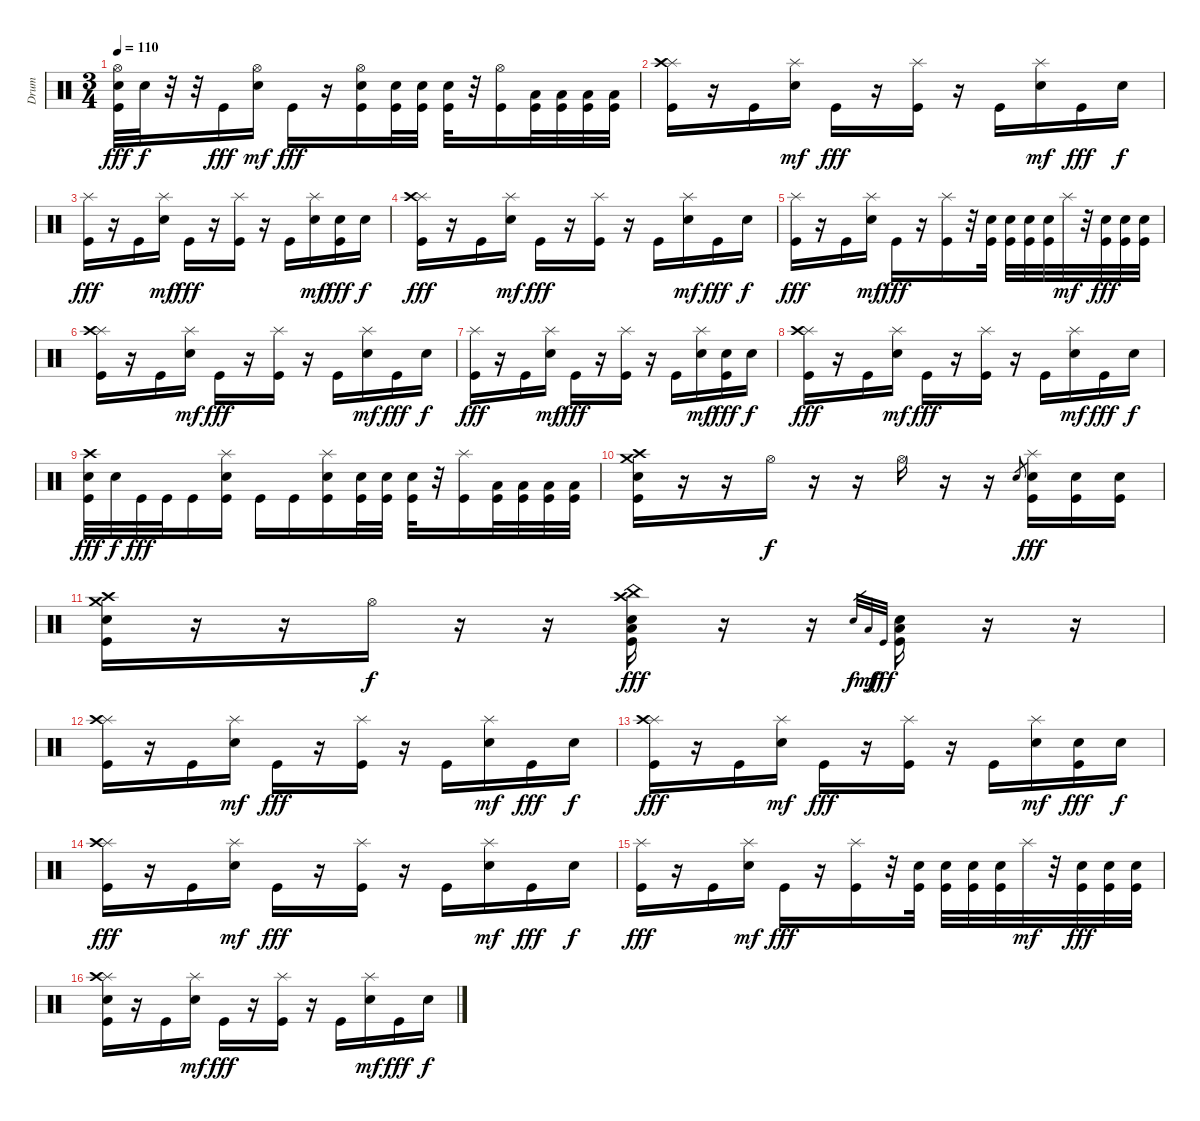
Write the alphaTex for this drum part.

\track ("Drum" "Drum") {instrument percussion}
\staff {score}
\articulation defaults
\ts (3 4)
\tempo 110
\clef neutral
\ks c
("Hi-Hat (open)" "Electric Snare (hit)" "Kick (hit)").32{dy fff} "Electric Snare (hit)".32{dy f} r.32 r.32 "Kick (hit)".16{dy fff} ("Hi-Hat (open)" "Electric Snare (hit)").16{dy mf} "Kick (hit)".16{dy fff} r.16 ("Hi-Hat (open)" "Electric Snare (hit)" "Kick (hit)").16 ("Electric Snare (hit)" "Kick (hit)").32 ("Electric Snare (hit)" "Kick (hit)").32 ("Electric Snare (hit)" "Kick (hit)").32 r.32 ("Hi-Hat (open)" "Kick (hit)").16 ("Low Floor Tom (hit)" "Kick (hit)").32 ("Low Floor Tom (hit)" "Kick (hit)").32 ("Low Floor Tom (hit)" "Kick (hit)").32 ("Low Floor Tom (hit)" "Kick (hit)").32 |
("Splash (hit)" "Crash high (hit)" "Kick (hit)").16 r.16 "Kick (hit)".16 ("Splash (hit)" "Electric Snare (hit)").16{dy mf} "Kick (hit)".16{dy fff} r.16 ("Splash (hit)" "Kick (hit)").16 r.16 "Kick (hit)".16 ("Splash (hit)" "Electric Snare (hit)").16{dy mf} "Kick (hit)".16{dy fff} "Electric Snare (hit)".16{dy f} |
("Splash (hit)" "Kick (hit)").16{dy fff} r.16 "Kick (hit)".16 ("Splash (hit)" "Electric Snare (hit)").16{dy mf} "Kick (hit)".16{dy fff} r.16 ("Splash (hit)" "Kick (hit)").16 r.16 "Kick (hit)".16 ("Splash (hit)" "Electric Snare (hit)").16{dy mf} ("Electric Snare (hit)" "Kick (hit)").16{dy fff} "Electric Snare (hit)".16{dy f} |
("Splash (hit)" "Crash high (hit)" "Kick (hit)").16{dy fff} r.16 "Kick (hit)".16 ("Splash (hit)" "Electric Snare (hit)").16{dy mf} "Kick (hit)".16{dy fff} r.16 ("Splash (hit)" "Kick (hit)").16 r.16 "Kick (hit)".16 ("Splash (hit)" "Electric Snare (hit)").16{dy mf} "Kick (hit)".16{dy fff} "Electric Snare (hit)".16{dy f} |
("Splash (hit)" "Kick (hit)").16{dy fff} r.16 "Kick (hit)".16 ("Splash (hit)" "Electric Snare (hit)").16{dy mf} "Kick (hit)".16{dy fff} r.16 ("Splash (hit)" "Kick (hit)").16 r.32 ("Electric Snare (hit)" "Kick (hit)").32 ("Electric Snare (hit)" "Kick (hit)").32 ("Electric Snare (hit)" "Kick (hit)").32 ("Electric Snare (hit)" "Kick (hit)").32 "Splash (hit)".32{dy mf} r.32 ("Electric Snare (hit)" "Kick (hit)").32{dy fff} ("Electric Snare (hit)" "Kick (hit)").32 ("Electric Snare (hit)" "Kick (hit)").32 |
("Splash (hit)" "Crash high (hit)" "Kick (hit)").16 r.16 "Kick (hit)".16 ("Splash (hit)" "Electric Snare (hit)").16{dy mf} "Kick (hit)".16{dy fff} r.16 ("Splash (hit)" "Kick (hit)").16 r.16 "Kick (hit)".16 ("Splash (hit)" "Electric Snare (hit)").16{dy mf} "Kick (hit)".16{dy fff} "Electric Snare (hit)".16{dy f} |
("Splash (hit)" "Kick (hit)").16{dy fff} r.16 "Kick (hit)".16 ("Splash (hit)" "Electric Snare (hit)").16{dy mf} "Kick (hit)".16{dy fff} r.16 ("Splash (hit)" "Kick (hit)").16 r.16 "Kick (hit)".16 ("Splash (hit)" "Electric Snare (hit)").16{dy mf} ("Electric Snare (hit)" "Kick (hit)").16{dy fff} "Electric Snare (hit)".16{dy f} |
("Splash (hit)" "Crash high (hit)" "Kick (hit)").16{dy fff} r.16 "Kick (hit)".16 ("Splash (hit)" "Electric Snare (hit)").16{dy mf} "Kick (hit)".16{dy fff} r.16 ("Splash (hit)" "Kick (hit)").16 r.16 "Kick (hit)".16 ("Splash (hit)" "Electric Snare (hit)").16{dy mf} "Kick (hit)".16{dy fff} "Electric Snare (hit)".16{dy f} |
("Crash high (hit)" "Electric Snare (hit)" "Kick (hit)").32{dy fff} "Electric Snare (hit)".32{dy f} "Kick (hit)".32{dy fff} "Kick (hit)".32 "Kick (hit)".16 ("Splash (hit)" "Electric Snare (hit)" "Kick (hit)").16 "Kick (hit)".16 "Kick (hit)".16 ("Splash (hit)" "Electric Snare (hit)" "Kick (hit)").16 ("Electric Snare (hit)" "Kick (hit)").32 ("Electric Snare (hit)" "Kick (hit)").32 ("Electric Snare (hit)" "Kick (hit)").32 r.32 ("Splash (hit)" "Kick (hit)").16 ("Low Floor Tom (hit)" "Kick (hit)").32 ("Low Floor Tom (hit)" "Kick (hit)").32 ("Low Floor Tom (hit)" "Kick (hit)").32 ("Low Floor Tom (hit)" "Kick (hit)").32 |
("Crash medium (hit)" "Crash high (hit)" "Electric Snare (hit)" "Kick (hit)").16 r.16 r.16 "Hi-Hat (open)".16{dy f} r.16 r.16 "Hi-Hat (open)".16 r.16 r.16 "Electric Snare (hit)".8{gr} ("Splash (hit)" "Electric Snare (hit)" "Kick (hit)").16{dy fff} ("Electric Snare (hit)" "Kick (hit)").16 ("Electric Snare (hit)" "Kick (hit)").16 |
("Crash medium (hit)" "Crash high (hit)" "Electric Snare (hit)" "Kick (hit)").16 r.16 r.16 "Hi-Hat (open)".16{dy f} r.16 r.16 ("Crash high (hit)" "China (hit)" "Electric Snare (hit)" "Low Floor Tom (hit)" "Kick (hit)").16{dy fff} r.16 r.16 "Electric Snare (hit)".32{gr dy f} "Low Floor Tom (hit)".32{gr dy mf} "Kick (hit)".32{gr dy fff} ("Electric Snare (hit)" "Low Floor Tom (hit)" "Kick (hit)").16 r.16 r.16 |
("Splash (hit)" "Crash high (hit)" "Kick (hit)").16 r.16 "Kick (hit)".16 ("Splash (hit)" "Electric Snare (hit)").16{dy mf} "Kick (hit)".16{dy fff} r.16 ("Splash (hit)" "Kick (hit)").16 r.16 "Kick (hit)".16 ("Splash (hit)" "Electric Snare (hit)").16{dy mf} "Kick (hit)".16{dy fff} "Electric Snare (hit)".16{dy f} |
("Splash (hit)" "Crash high (hit)" "Kick (hit)").16{dy fff} r.16 "Kick (hit)".16 ("Splash (hit)" "Electric Snare (hit)").16{dy mf} "Kick (hit)".16{dy fff} r.16 ("Splash (hit)" "Kick (hit)").16 r.16 "Kick (hit)".16 ("Splash (hit)" "Electric Snare (hit)").16{dy mf} ("Electric Snare (hit)" "Kick (hit)").16{dy fff} "Electric Snare (hit)".16{dy f} |
("Splash (hit)" "Crash high (hit)" "Kick (hit)").16{dy fff} r.16 "Kick (hit)".16 ("Splash (hit)" "Electric Snare (hit)").16{dy mf} "Kick (hit)".16{dy fff} r.16 ("Splash (hit)" "Kick (hit)").16 r.16 "Kick (hit)".16 ("Splash (hit)" "Electric Snare (hit)").16{dy mf} "Kick (hit)".16{dy fff} "Electric Snare (hit)".16{dy f} |
("Splash (hit)" "Kick (hit)").16{dy fff} r.16 "Kick (hit)".16 ("Splash (hit)" "Electric Snare (hit)").16{dy mf} "Kick (hit)".16{dy fff} r.16 ("Splash (hit)" "Kick (hit)").16 r.32 ("Electric Snare (hit)" "Kick (hit)").32 ("Electric Snare (hit)" "Kick (hit)").32 ("Electric Snare (hit)" "Kick (hit)").32 ("Electric Snare (hit)" "Kick (hit)").32 "Splash (hit)".32{dy mf} r.32 ("Electric Snare (hit)" "Kick (hit)").32{dy fff} ("Electric Snare (hit)" "Kick (hit)").32 ("Electric Snare (hit)" "Kick (hit)").32 |
("Splash (hit)" "Crash high (hit)" "Electric Snare (hit)" "Kick (hit)").16 r.16 "Kick (hit)".16 ("Splash (hit)" "Electric Snare (hit)").16{dy mf} "Kick (hit)".16{dy fff} r.16 ("Splash (hit)" "Kick (hit)").16 r.16 "Kick (hit)".16 ("Splash (hit)" "Electric Snare (hit)").16{dy mf} "Kick (hit)".16{dy fff} "Electric Snare (hit)".16{dy f}
